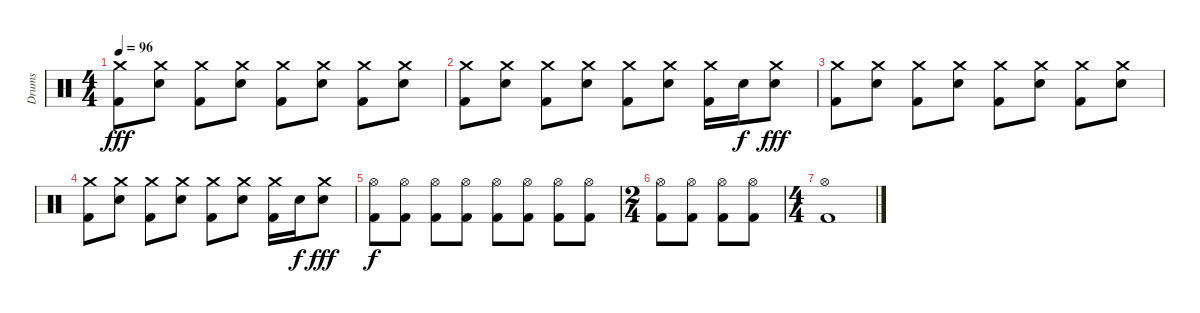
\track ("Drums" "Drums") {instrument percussion}
\staff {score}
\articulation defaults
\ts (4 4)
\tempo 96
\clef neutral
\ks c
("Crash medium (hit)" "Kick (hit) 2").8{dy fff} ("Crash medium (hit)" "Snare (hit) 2").8 ("Crash medium (hit)" "Kick (hit) 2").8 ("Crash medium (hit)" "Snare (hit) 2").8 ("Crash medium (hit)" "Kick (hit) 2").8 ("Crash medium (hit)" "Snare (hit) 2").8 ("Crash medium (hit)" "Kick (hit) 2").8 ("Crash medium (hit)" "Snare (hit) 2").8 |
("Crash medium (hit)" "Kick (hit) 2").8 ("Crash medium (hit)" "Snare (hit) 2").8 ("Crash medium (hit)" "Kick (hit) 2").8 ("Crash medium (hit)" "Snare (hit) 2").8 ("Crash medium (hit)" "Kick (hit) 2").8 ("Crash medium (hit)" "Snare (hit) 2").8 ("Crash medium (hit)" "Kick (hit) 2").16 "Snare (hit) 2".16{dy f} ("Crash medium (hit)" "Snare (hit) 2").8{dy fff} |
("Crash medium (hit)" "Kick (hit) 2").8 ("Crash medium (hit)" "Snare (hit) 2").8 ("Crash medium (hit)" "Kick (hit) 2").8 ("Crash medium (hit)" "Snare (hit) 2").8 ("Crash medium (hit)" "Kick (hit) 2").8 ("Crash medium (hit)" "Snare (hit) 2").8 ("Crash medium (hit)" "Kick (hit) 2").8 ("Crash medium (hit)" "Snare (hit) 2").8 |
("Crash medium (hit)" "Kick (hit) 2").8 ("Crash medium (hit)" "Snare (hit) 2").8 ("Crash medium (hit)" "Kick (hit) 2").8 ("Crash medium (hit)" "Snare (hit) 2").8 ("Crash medium (hit)" "Kick (hit) 2").8 ("Crash medium (hit)" "Snare (hit) 2").8 ("Crash medium (hit)" "Kick (hit) 2").16 "Snare (hit) 2".16{dy f} ("Crash medium (hit)" "Snare (hit) 2").8{dy fff} |
("Hi-Hat (open)" "Kick (hit) 2").8{dy f} ("Hi-Hat (open)" "Kick (hit) 2").8 ("Hi-Hat (open)" "Kick (hit) 2").8 ("Hi-Hat (open)" "Kick (hit) 2").8 ("Hi-Hat (open)" "Kick (hit) 2").8 ("Hi-Hat (open)" "Kick (hit) 2").8 ("Hi-Hat (open)" "Kick (hit) 2").8 ("Hi-Hat (open)" "Kick (hit) 2").8 |
\ts (2 4)
("Hi-Hat (open)" "Kick (hit) 2").8 ("Hi-Hat (open)" "Kick (hit) 2").8 ("Hi-Hat (open)" "Kick (hit) 2").8 ("Hi-Hat (open)" "Kick (hit) 2").8 |
\ts (4 4)
("Hi-Hat (open)" "Kick (hit) 2").1
